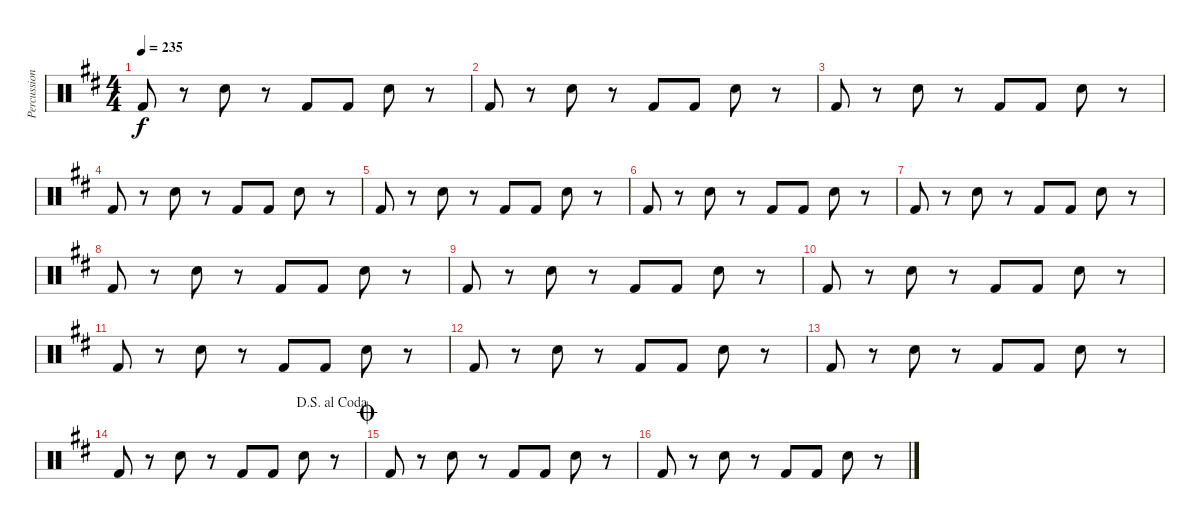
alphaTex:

\track ("Percussion" "Percussion") {instrument percussion}
\staff {score}
\articulation defaults
\ts (4 4)
\tempo 235
\clef neutral
\ks d "Kick (hit) 2".8{dy f}
r.8 "Snare (hit) 2".8 r.8 "Kick (hit) 2".8 "Kick (hit) 2".8 "Snare (hit) 2".8 r.8 |
"Kick (hit) 2".8 r.8 "Snare (hit) 2".8 r.8 "Kick (hit) 2".8 "Kick (hit) 2".8 "Snare (hit) 2".8 r.8 |
"Kick (hit) 2".8 r.8 "Snare (hit) 2".8 r.8 "Kick (hit) 2".8 "Kick (hit) 2".8 "Snare (hit) 2".8 r.8 |
"Kick (hit) 2".8 r.8 "Snare (hit) 2".8 r.8 "Kick (hit) 2".8 "Kick (hit) 2".8 "Snare (hit) 2".8 r.8 |
"Kick (hit) 2".8 r.8 "Snare (hit) 2".8 r.8 "Kick (hit) 2".8 "Kick (hit) 2".8 "Snare (hit) 2".8 r.8 |
"Kick (hit) 2".8 r.8 "Snare (hit) 2".8 r.8 "Kick (hit) 2".8 "Kick (hit) 2".8 "Snare (hit) 2".8 r.8 |
"Kick (hit) 2".8 r.8 "Snare (hit) 2".8 r.8 "Kick (hit) 2".8 "Kick (hit) 2".8 "Snare (hit) 2".8 r.8 |
"Kick (hit) 2".8 r.8 "Snare (hit) 2".8 r.8 "Kick (hit) 2".8 "Kick (hit) 2".8 "Snare (hit) 2".8 r.8 |
"Kick (hit) 2".8 r.8 "Snare (hit) 2".8 r.8 "Kick (hit) 2".8 "Kick (hit) 2".8 "Snare (hit) 2".8 r.8 |
"Kick (hit) 2".8 r.8 "Snare (hit) 2".8 r.8 "Kick (hit) 2".8 "Kick (hit) 2".8 "Snare (hit) 2".8 r.8 |
"Kick (hit) 2".8 r.8 "Snare (hit) 2".8 r.8 "Kick (hit) 2".8 "Kick (hit) 2".8 "Snare (hit) 2".8 r.8 |
"Kick (hit) 2".8 r.8 "Snare (hit) 2".8 r.8 "Kick (hit) 2".8 "Kick (hit) 2".8 "Snare (hit) 2".8 r.8 |
"Kick (hit) 2".8 r.8 "Snare (hit) 2".8 r.8 "Kick (hit) 2".8 "Kick (hit) 2".8 "Snare (hit) 2".8 r.8 |
\jump dalsegnoalcoda "Kick (hit) 2".8
r.8 "Snare (hit) 2".8 r.8 "Kick (hit) 2".8 "Kick (hit) 2".8 "Snare (hit) 2".8 r.8 |
\jump coda "Kick (hit) 2".8
r.8 "Snare (hit) 2".8 r.8 "Kick (hit) 2".8 "Kick (hit) 2".8 "Snare (hit) 2".8 r.8 |
"Kick (hit) 2".8 r.8 "Snare (hit) 2".8 r.8 "Kick (hit) 2".8 "Kick (hit) 2".8 "Snare (hit) 2".8 r.8
